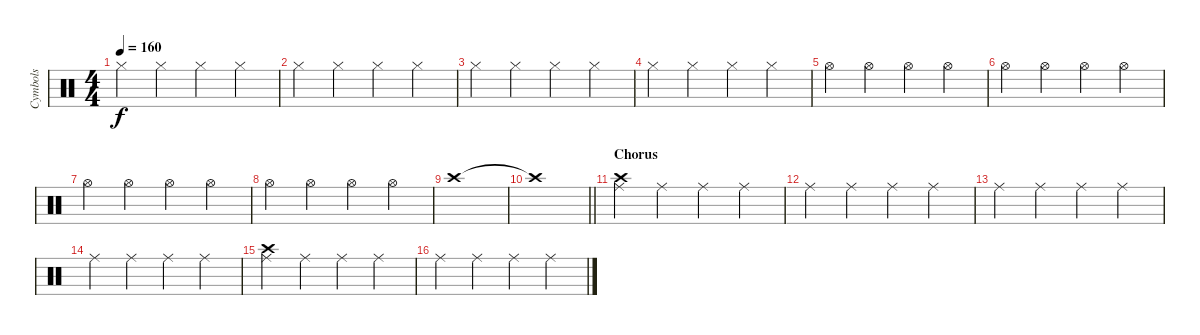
\track ("Cymbols" "Cymbols") {instrument percussion}
\staff {score}
\articulation defaults
\ts (4 4)
\tempo 160
\clef neutral
\ks c "Hi-Hat (closed)".4{dy f} "Hi-Hat (closed)".4 "Hi-Hat (closed)".4 "Hi-Hat (closed)".4
|
"Hi-Hat (closed)".4 "Hi-Hat (closed)".4 "Hi-Hat (closed)".4 "Hi-Hat (closed)".4 |
"Hi-Hat (closed)".4 "Hi-Hat (closed)".4 "Hi-Hat (closed)".4 "Hi-Hat (closed)".4 |
"Hi-Hat (closed)".4 "Hi-Hat (closed)".4 "Hi-Hat (closed)".4 "Hi-Hat (closed)".4 |
"Hi-Hat (open)".4 "Hi-Hat (open)".4 "Hi-Hat (open)".4 "Hi-Hat (open)".4 |
"Hi-Hat (open)".4 "Hi-Hat (open)".4 "Hi-Hat (open)".4 "Hi-Hat (open)".4 |
"Hi-Hat (open)".4 "Hi-Hat (open)".4 "Hi-Hat (open)".4 "Hi-Hat (open)".4 |
"Hi-Hat (open)".4 "Hi-Hat (open)".4 "Hi-Hat (open)".4 "Hi-Hat (open)".4 |
"Crash high (hit)".1 |
\barLineRight lightlight "Crash high (hit)"{t}.1
|
\section ("" "Chorus")
("Crash high (hit)" "Ride (middle)").4 "Ride (middle)".4 "Ride (middle)".4 "Ride (middle)".4 |
"Ride (middle)".4 "Ride (middle)".4 "Ride (middle)".4 "Ride (middle)".4 |
"Ride (middle)".4 "Ride (middle)".4 "Ride (middle)".4 "Ride (middle)".4 |
"Ride (middle)".4 "Ride (middle)".4 "Ride (middle)".4 "Ride (middle)".4 |
("Crash high (hit)" "Ride (middle)").4 "Ride (middle)".4 "Ride (middle)".4 "Ride (middle)".4 |
"Ride (middle)".4 "Ride (middle)".4 "Ride (middle)".4 "Ride (middle)".4
